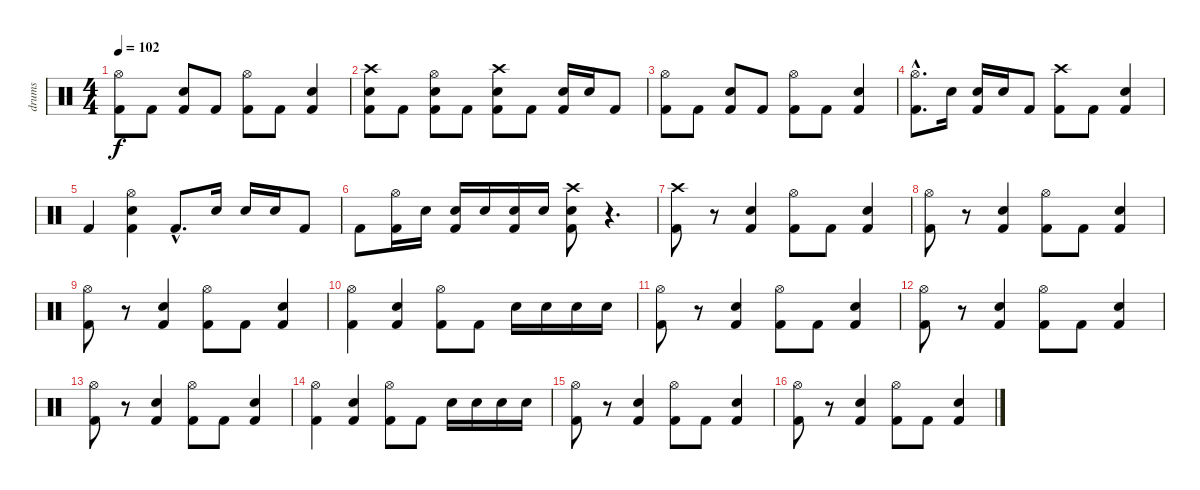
\track ("drums" "drums") {instrument percussion}
\staff {score}
\articulation defaults
\ts (4 4)
\tempo 102
\clef neutral
\ks c
("Hi-Hat (open)" "Kick (hit) 2").8{dy f} "Kick (hit) 2".8 ("Electric Snare (hit)" "Kick (hit) 2").8 "Kick (hit) 2".8 ("Hi-Hat (open)" "Kick (hit) 2").8 "Kick (hit) 2".8 ("Electric Snare (hit)" "Kick (hit) 2").4 |
("Crash high (hit)" "Electric Snare (hit)" "Kick (hit) 2").8 "Kick (hit) 2".8 ("Hi-Hat (open)" "Electric Snare (hit)" "Kick (hit) 2").8 "Kick (hit) 2".8 ("Crash high (hit)" "Electric Snare (hit)" "Kick (hit) 2").8 "Kick (hit) 2".8 ("Electric Snare (hit)" "Kick (hit) 2").16 "Electric Snare (hit)".16 "Kick (hit) 2".8 |
("Hi-Hat (open)" "Kick (hit) 2").8 "Kick (hit) 2".8 ("Electric Snare (hit)" "Kick (hit) 2").8 "Kick (hit) 2".8 ("Hi-Hat (open)" "Kick (hit) 2").8 "Kick (hit) 2".8 ("Electric Snare (hit)" "Kick (hit) 2").4 |
("Hi-Hat (open)"{hac} "Kick (hit) 2"{hac}).8{d} "Electric Snare (hit)".16 ("Electric Snare (hit)" "Kick (hit) 2").16 "Electric Snare (hit)".16 "Kick (hit) 2".8 ("Crash high (hit)" "Kick (hit) 2").8 "Kick (hit) 2".8 ("Electric Snare (hit)" "Kick (hit) 2").4 |
"Kick (hit) 2".4 ("Hi-Hat (open)" "Electric Snare (hit)" "Kick (hit) 2").4 "Kick (hit) 2"{hac}.8{d} "Electric Snare (hit)".16 "Electric Snare (hit)".16 "Electric Snare (hit)".16 "Kick (hit) 2".8 |
"Kick (hit) 2".8 ("Hi-Hat (open)" "Kick (hit) 2").16 "Electric Snare (hit)".16 ("Electric Snare (hit)" "Kick (hit) 2").16 "Electric Snare (hit)".16 ("Electric Snare (hit)" "Kick (hit) 2").16 "Electric Snare (hit)".16 ("Crash high (hit)" "Electric Snare (hit)" "Kick (hit) 2").8 r.4{d} |
("Crash high (hit)" "Kick (hit) 2").8 r.8 ("Electric Snare (hit)" "Kick (hit) 2").4 ("Hi-Hat (open)" "Kick (hit) 2").8 "Kick (hit) 2".8 ("Electric Snare (hit)" "Kick (hit) 2").4 |
("Hi-Hat (open)" "Kick (hit) 2").8 r.8 ("Electric Snare (hit)" "Kick (hit) 2").4 ("Hi-Hat (open)" "Kick (hit) 2").8 "Kick (hit) 2".8 ("Electric Snare (hit)" "Kick (hit) 2").4 |
("Hi-Hat (open)" "Kick (hit) 2").8 r.8 ("Electric Snare (hit)" "Kick (hit) 2").4 ("Hi-Hat (open)" "Kick (hit) 2").8 "Kick (hit) 2".8 ("Electric Snare (hit)" "Kick (hit) 2").4 |
("Hi-Hat (open)" "Kick (hit) 2").4 ("Electric Snare (hit)" "Kick (hit) 2").4 ("Hi-Hat (open)" "Kick (hit) 2").8 "Kick (hit) 2".8 "Electric Snare (hit)".16 "Electric Snare (hit)".16 "Snare (hit) 2".16 "Snare (hit) 2".16 |
("Hi-Hat (open)" "Kick (hit) 2").8 r.8 ("Electric Snare (hit)" "Kick (hit) 2").4 ("Hi-Hat (open)" "Kick (hit) 2").8 "Kick (hit) 2".8 ("Electric Snare (hit)" "Kick (hit) 2").4 |
("Hi-Hat (open)" "Kick (hit) 2").8 r.8 ("Electric Snare (hit)" "Kick (hit) 2").4 ("Hi-Hat (open)" "Kick (hit) 2").8 "Kick (hit) 2".8 ("Electric Snare (hit)" "Kick (hit) 2").4 |
("Hi-Hat (open)" "Kick (hit) 2").8 r.8 ("Electric Snare (hit)" "Kick (hit) 2").4 ("Hi-Hat (open)" "Kick (hit) 2").8 "Kick (hit) 2".8 ("Electric Snare (hit)" "Kick (hit) 2").4 |
("Hi-Hat (open)" "Kick (hit) 2").4 ("Electric Snare (hit)" "Kick (hit) 2").4 ("Hi-Hat (open)" "Kick (hit) 2").8 "Kick (hit) 2".8 "Electric Snare (hit)".16 "Electric Snare (hit)".16 "Snare (hit) 2".16 "Snare (hit) 2".16 |
("Hi-Hat (open)" "Kick (hit) 2").8 r.8 ("Electric Snare (hit)" "Kick (hit) 2").4 ("Hi-Hat (open)" "Kick (hit) 2").8 "Kick (hit) 2".8 ("Electric Snare (hit)" "Kick (hit) 2").4 |
("Hi-Hat (open)" "Kick (hit) 2").8 r.8 ("Electric Snare (hit)" "Kick (hit) 2").4 ("Hi-Hat (open)" "Kick (hit) 2").8 "Kick (hit) 2".8 ("Electric Snare (hit)" "Kick (hit) 2").4
